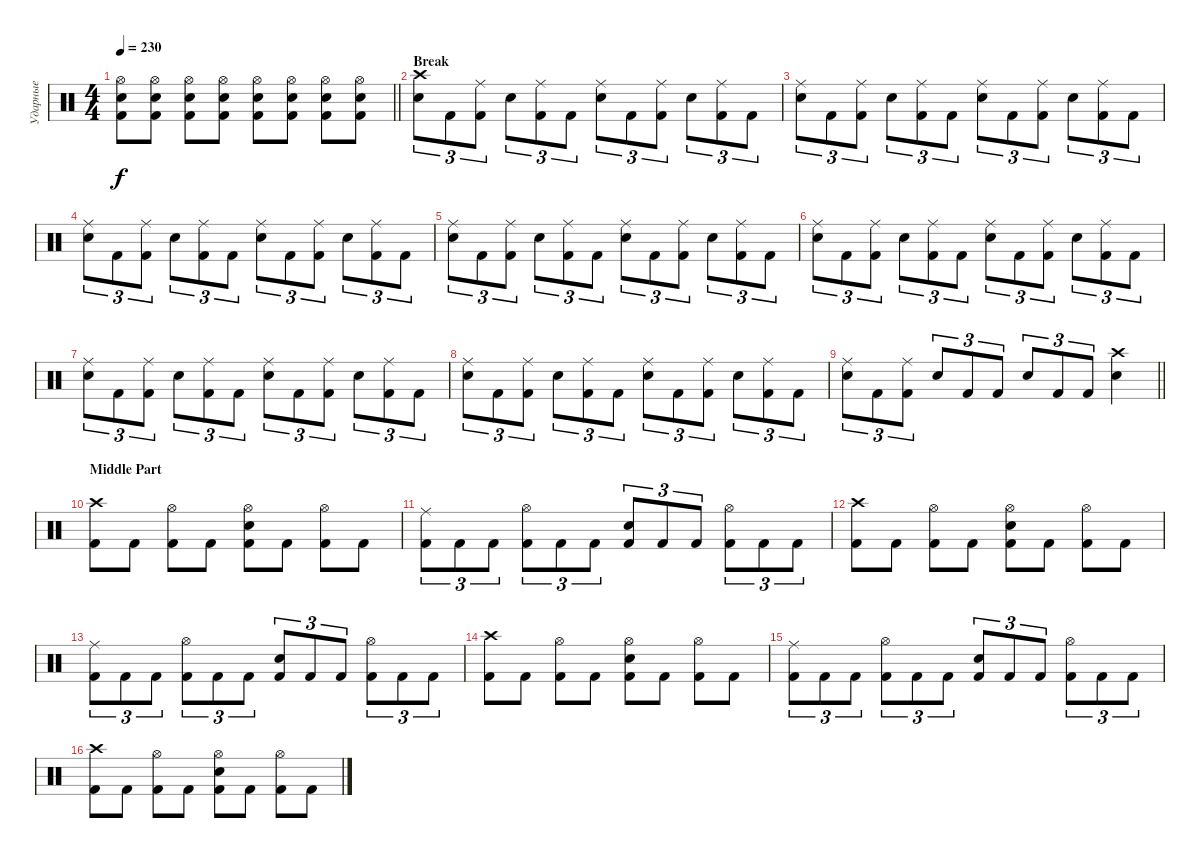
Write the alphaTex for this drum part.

\track ("Ударные" "Ударные") {instrument percussion}
\staff {score}
\articulation defaults
\ts (4 4)
\tempo 230
\clef neutral
\barLineRight lightlight
\ks c
("Hi-Hat (open)" "Snare (hit) 2" "Kick (hit) 2").8{dy f} ("Hi-Hat (open)" "Snare (hit) 2" "Kick (hit) 2").8 ("Hi-Hat (open)" "Snare (hit) 2" "Kick (hit) 2").8 ("Hi-Hat (open)" "Snare (hit) 2" "Kick (hit) 2").8 ("Hi-Hat (open)" "Snare (hit) 2" "Kick (hit) 2").8 ("Hi-Hat (open)" "Snare (hit) 2" "Kick (hit) 2").8 ("Hi-Hat (open)" "Snare (hit) 2" "Kick (hit) 2").8 ("Hi-Hat (open)" "Snare (hit) 2" "Kick (hit) 2").8 |
\section ("" "Break")
("Crash high (hit)" "Snare (hit) 2").8{tu (3 2)} "Kick (hit) 2".8{tu (3 2)} ("Ride (middle)" "Kick (hit) 2").8{tu (3 2)} "Snare (hit) 2".8{tu (3 2)} ("Ride (middle)" "Kick (hit) 2").8{tu (3 2)} "Kick (hit) 2".8{tu (3 2)} ("Ride (middle)" "Snare (hit) 2").8{tu (3 2)} "Kick (hit) 2".8{tu (3 2)} ("Ride (middle)" "Kick (hit) 2").8{tu (3 2)} "Snare (hit) 2".8{tu (3 2)} ("Ride (middle)" "Kick (hit) 2").8{tu (3 2)} "Kick (hit) 2".8{tu (3 2)} |
("Ride (middle)" "Snare (hit) 2").8{tu (3 2)} "Kick (hit) 2".8{tu (3 2)} ("Ride (middle)" "Kick (hit) 2").8{tu (3 2)} "Snare (hit) 2".8{tu (3 2)} ("Ride (middle)" "Kick (hit) 2").8{tu (3 2)} "Kick (hit) 2".8{tu (3 2)} ("Ride (middle)" "Snare (hit) 2").8{tu (3 2)} "Kick (hit) 2".8{tu (3 2)} ("Ride (middle)" "Kick (hit) 2").8{tu (3 2)} "Snare (hit) 2".8{tu (3 2)} ("Ride (middle)" "Kick (hit) 2").8{tu (3 2)} "Kick (hit) 2".8{tu (3 2)} |
("Ride (middle)" "Snare (hit) 2").8{tu (3 2)} "Kick (hit) 2".8{tu (3 2)} ("Ride (middle)" "Kick (hit) 2").8{tu (3 2)} "Snare (hit) 2".8{tu (3 2)} ("Ride (middle)" "Kick (hit) 2").8{tu (3 2)} "Kick (hit) 2".8{tu (3 2)} ("Ride (middle)" "Snare (hit) 2").8{tu (3 2)} "Kick (hit) 2".8{tu (3 2)} ("Ride (middle)" "Kick (hit) 2").8{tu (3 2)} "Snare (hit) 2".8{tu (3 2)} ("Ride (middle)" "Kick (hit) 2").8{tu (3 2)} "Kick (hit) 2".8{tu (3 2)} |
("Ride (middle)" "Snare (hit) 2").8{tu (3 2)} "Kick (hit) 2".8{tu (3 2)} ("Ride (middle)" "Kick (hit) 2").8{tu (3 2)} "Snare (hit) 2".8{tu (3 2)} ("Ride (middle)" "Kick (hit) 2").8{tu (3 2)} "Kick (hit) 2".8{tu (3 2)} ("Ride (middle)" "Snare (hit) 2").8{tu (3 2)} "Kick (hit) 2".8{tu (3 2)} ("Ride (middle)" "Kick (hit) 2").8{tu (3 2)} "Snare (hit) 2".8{tu (3 2)} ("Ride (middle)" "Kick (hit) 2").8{tu (3 2)} "Kick (hit) 2".8{tu (3 2)} |
("Ride (middle)" "Snare (hit) 2").8{tu (3 2)} "Kick (hit) 2".8{tu (3 2)} ("Ride (middle)" "Kick (hit) 2").8{tu (3 2)} "Snare (hit) 2".8{tu (3 2)} ("Ride (middle)" "Kick (hit) 2").8{tu (3 2)} "Kick (hit) 2".8{tu (3 2)} ("Ride (middle)" "Snare (hit) 2").8{tu (3 2)} "Kick (hit) 2".8{tu (3 2)} ("Ride (middle)" "Kick (hit) 2").8{tu (3 2)} "Snare (hit) 2".8{tu (3 2)} ("Ride (middle)" "Kick (hit) 2").8{tu (3 2)} "Kick (hit) 2".8{tu (3 2)} |
("Ride (middle)" "Snare (hit) 2").8{tu (3 2)} "Kick (hit) 2".8{tu (3 2)} ("Ride (middle)" "Kick (hit) 2").8{tu (3 2)} "Snare (hit) 2".8{tu (3 2)} ("Ride (middle)" "Kick (hit) 2").8{tu (3 2)} "Kick (hit) 2".8{tu (3 2)} ("Ride (middle)" "Snare (hit) 2").8{tu (3 2)} "Kick (hit) 2".8{tu (3 2)} ("Ride (middle)" "Kick (hit) 2").8{tu (3 2)} "Snare (hit) 2".8{tu (3 2)} ("Ride (middle)" "Kick (hit) 2").8{tu (3 2)} "Kick (hit) 2".8{tu (3 2)} |
("Ride (middle)" "Snare (hit) 2").8{tu (3 2)} "Kick (hit) 2".8{tu (3 2)} ("Ride (middle)" "Kick (hit) 2").8{tu (3 2)} "Snare (hit) 2".8{tu (3 2)} ("Ride (middle)" "Kick (hit) 2").8{tu (3 2)} "Kick (hit) 2".8{tu (3 2)} ("Ride (middle)" "Snare (hit) 2").8{tu (3 2)} "Kick (hit) 2".8{tu (3 2)} ("Ride (middle)" "Kick (hit) 2").8{tu (3 2)} "Snare (hit) 2".8{tu (3 2)} ("Ride (middle)" "Kick (hit) 2").8{tu (3 2)} "Kick (hit) 2".8{tu (3 2)} |
\barLineRight lightlight
("Ride (middle)" "Snare (hit) 2").8{tu (3 2)} "Kick (hit) 2".8{tu (3 2)} ("Ride (middle)" "Kick (hit) 2").8{tu (3 2)} "Snare (hit) 2".8{tu (3 2)} "Kick (hit) 2".8{tu (3 2)} "Kick (hit) 2".8{tu (3 2)} "Snare (hit) 2".8{tu (3 2)} "Kick (hit) 2".8{tu (3 2)} "Kick (hit) 2".8{tu (3 2)} ("Crash high (hit)" "Snare (hit) 2").4 |
\section ("" "Middle Part")
("Kick (hit) 2" "Crash high (hit)").8 "Kick (hit) 2".8 ("Kick (hit) 2" "Hi-Hat (open)").8 "Kick (hit) 2".8 ("Kick (hit) 2" "Hi-Hat (open)" "Snare (hit) 2").8 "Kick (hit) 2".8 ("Kick (hit) 2" "Hi-Hat (open)").8 "Kick (hit) 2".8 |
("Ride (middle)" "Kick (hit) 2").8{tu (3 2)} "Kick (hit) 2".8{tu (3 2)} "Kick (hit) 2".8{tu (3 2)} ("Hi-Hat (open)" "Kick (hit) 2").8{tu (3 2)} "Kick (hit) 2".8{tu (3 2)} "Kick (hit) 2".8{tu (3 2)} ("Snare (hit) 2" "Kick (hit) 2").8{tu (3 2)} "Kick (hit) 2".8{tu (3 2)} "Kick (hit) 2".8{tu (3 2)} ("Hi-Hat (open)" "Kick (hit) 2").8{tu (3 2)} "Kick (hit) 2".8{tu (3 2)} "Kick (hit) 2".8{tu (3 2)} |
("Kick (hit) 2" "Crash high (hit)").8 "Kick (hit) 2".8 ("Kick (hit) 2" "Hi-Hat (open)").8 "Kick (hit) 2".8 ("Kick (hit) 2" "Hi-Hat (open)" "Snare (hit) 2").8 "Kick (hit) 2".8 ("Kick (hit) 2" "Hi-Hat (open)").8 "Kick (hit) 2".8 |
("Ride (middle)" "Kick (hit) 2").8{tu (3 2)} "Kick (hit) 2".8{tu (3 2)} "Kick (hit) 2".8{tu (3 2)} ("Hi-Hat (open)" "Kick (hit) 2").8{tu (3 2)} "Kick (hit) 2".8{tu (3 2)} "Kick (hit) 2".8{tu (3 2)} ("Snare (hit) 2" "Kick (hit) 2").8{tu (3 2)} "Kick (hit) 2".8{tu (3 2)} "Kick (hit) 2".8{tu (3 2)} ("Hi-Hat (open)" "Kick (hit) 2").8{tu (3 2)} "Kick (hit) 2".8{tu (3 2)} "Kick (hit) 2".8{tu (3 2)} |
("Kick (hit) 2" "Crash high (hit)").8 "Kick (hit) 2".8 ("Kick (hit) 2" "Hi-Hat (open)").8 "Kick (hit) 2".8 ("Kick (hit) 2" "Hi-Hat (open)" "Snare (hit) 2").8 "Kick (hit) 2".8 ("Kick (hit) 2" "Hi-Hat (open)").8 "Kick (hit) 2".8 |
("Ride (middle)" "Kick (hit) 2").8{tu (3 2)} "Kick (hit) 2".8{tu (3 2)} "Kick (hit) 2".8{tu (3 2)} ("Hi-Hat (open)" "Kick (hit) 2").8{tu (3 2)} "Kick (hit) 2".8{tu (3 2)} "Kick (hit) 2".8{tu (3 2)} ("Snare (hit) 2" "Kick (hit) 2").8{tu (3 2)} "Kick (hit) 2".8{tu (3 2)} "Kick (hit) 2".8{tu (3 2)} ("Hi-Hat (open)" "Kick (hit) 2").8{tu (3 2)} "Kick (hit) 2".8{tu (3 2)} "Kick (hit) 2".8{tu (3 2)} |
("Kick (hit) 2" "Crash high (hit)").8 "Kick (hit) 2".8 ("Kick (hit) 2" "Hi-Hat (open)").8 "Kick (hit) 2".8 ("Kick (hit) 2" "Hi-Hat (open)" "Snare (hit) 2").8 "Kick (hit) 2".8 ("Kick (hit) 2" "Hi-Hat (open)").8 "Kick (hit) 2".8
